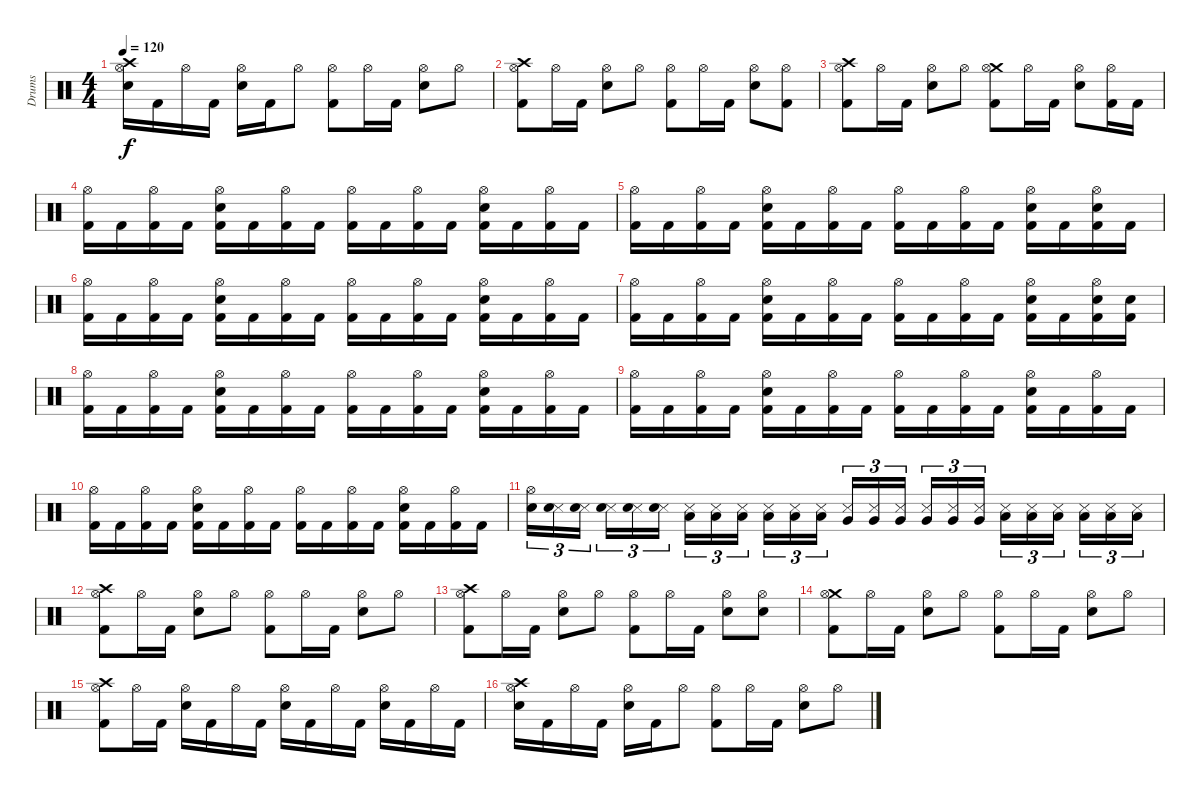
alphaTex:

\track ("Drums" "Drums") {instrument percussion}
\staff {score}
\articulation defaults
\ts (4 4)
\tempo 120
\clef neutral
\ks c
("Crash high (hit)" "Hi-Hat (open)" "Electric Snare (hit)").16{dy f} "Kick (hit) 2".16 "Hi-Hat (open)".16 "Kick (hit) 2".16 ("Hi-Hat (open)" "Electric Snare (hit)").16 "Kick (hit) 2".16 "Hi-Hat (open)".8 ("Hi-Hat (open)" "Kick (hit) 2").8 "Hi-Hat (open)".16 "Kick (hit) 2".16 ("Hi-Hat (open)" "Electric Snare (hit)").8 "Hi-Hat (open)".8 |
("Crash high (hit)" "Hi-Hat (open)" "Kick (hit) 2").8 "Hi-Hat (open)".16 "Kick (hit) 2".16 ("Hi-Hat (open)" "Electric Snare (hit)").8 "Hi-Hat (open)".8 ("Hi-Hat (open)" "Kick (hit) 2").8 "Hi-Hat (open)".16 "Kick (hit) 2".16 ("Hi-Hat (open)" "Electric Snare (hit)").8 ("Hi-Hat (open)" "Kick (hit) 2").8 |
("Crash high (hit)" "Hi-Hat (open)" "Kick (hit) 2").8 "Hi-Hat (open)".16 "Kick (hit) 2".16 ("Hi-Hat (open)" "Electric Snare (hit)").8 "Hi-Hat (open)".8 ("Crash medium (hit)" "Hi-Hat (open)" "Kick (hit) 2").8 "Hi-Hat (open)".16 "Kick (hit) 2".16 ("Hi-Hat (open)" "Electric Snare (hit)").8 ("Hi-Hat (open)" "Kick (hit) 2").16 "Kick (hit) 2".16 |
("Hi-Hat (open)" "Kick (hit) 2").16 "Kick (hit) 2".16 ("Hi-Hat (open)" "Kick (hit) 2").16 "Kick (hit) 2".16 ("Hi-Hat (open)" "Electric Snare (hit)" "Kick (hit) 2").16 "Kick (hit) 2".16 ("Hi-Hat (open)" "Kick (hit) 2").16 "Kick (hit) 2".16 ("Hi-Hat (open)" "Kick (hit) 2").16 "Kick (hit) 2".16 ("Hi-Hat (open)" "Kick (hit) 2").16 "Kick (hit) 2".16 ("Hi-Hat (open)" "Electric Snare (hit)" "Kick (hit) 2").16 "Kick (hit) 2".16 ("Hi-Hat (open)" "Kick (hit) 2").16 "Kick (hit) 2".16 |
("Hi-Hat (open)" "Kick (hit) 2").16 "Kick (hit) 2".16 ("Hi-Hat (open)" "Kick (hit) 2").16 "Kick (hit) 2".16 ("Hi-Hat (open)" "Electric Snare (hit)" "Kick (hit) 2").16 "Kick (hit) 2".16 ("Hi-Hat (open)" "Kick (hit) 2").16 "Kick (hit) 2".16 ("Hi-Hat (open)" "Kick (hit) 2").16 "Kick (hit) 2".16 ("Hi-Hat (open)" "Kick (hit) 2").16 "Kick (hit) 2".16 ("Hi-Hat (open)" "Electric Snare (hit)" "Kick (hit) 2").16 "Kick (hit) 2".16 ("Hi-Hat (open)" "Electric Snare (hit)" "Kick (hit) 2").16 "Kick (hit) 2".16 |
("Hi-Hat (open)" "Kick (hit) 2").16 "Kick (hit) 2".16 ("Hi-Hat (open)" "Kick (hit) 2").16 "Kick (hit) 2".16 ("Hi-Hat (open)" "Electric Snare (hit)" "Kick (hit) 2").16 "Kick (hit) 2".16 ("Hi-Hat (open)" "Kick (hit) 2").16 "Kick (hit) 2".16 ("Hi-Hat (open)" "Kick (hit) 2").16 "Kick (hit) 2".16 ("Hi-Hat (open)" "Kick (hit) 2").16 "Kick (hit) 2".16 ("Hi-Hat (open)" "Electric Snare (hit)" "Kick (hit) 2").16 "Kick (hit) 2".16 ("Hi-Hat (open)" "Kick (hit) 2").16 "Kick (hit) 2".16 |
("Hi-Hat (open)" "Kick (hit) 2").16 "Kick (hit) 2".16 ("Hi-Hat (open)" "Kick (hit) 2").16 "Kick (hit) 2".16 ("Hi-Hat (open)" "Electric Snare (hit)" "Kick (hit) 2").16 "Kick (hit) 2".16 ("Hi-Hat (open)" "Kick (hit) 2").16 "Kick (hit) 2".16 ("Hi-Hat (open)" "Kick (hit) 2").16 "Kick (hit) 2".16 ("Hi-Hat (open)" "Kick (hit) 2").16 "Kick (hit) 2".16 ("Hi-Hat (open)" "Electric Snare (hit)" "Kick (hit) 2").16 "Kick (hit) 2".16 ("Hi-Hat (open)" "Electric Snare (hit)" "Kick (hit) 2").16 ("Electric Snare (hit)" "Kick (hit) 2").16 |
("Hi-Hat (open)" "Kick (hit) 2").16 "Kick (hit) 2".16 ("Hi-Hat (open)" "Kick (hit) 2").16 "Kick (hit) 2".16 ("Hi-Hat (open)" "Electric Snare (hit)" "Kick (hit) 2").16 "Kick (hit) 2".16 ("Hi-Hat (open)" "Kick (hit) 2").16 "Kick (hit) 2".16 ("Hi-Hat (open)" "Kick (hit) 2").16 "Kick (hit) 2".16 ("Hi-Hat (open)" "Kick (hit) 2").16 "Kick (hit) 2".16 ("Hi-Hat (open)" "Electric Snare (hit)" "Kick (hit) 2").16 "Kick (hit) 2".16 ("Hi-Hat (open)" "Kick (hit) 2").16 "Kick (hit) 2".16 |
("Hi-Hat (open)" "Kick (hit) 2").16 "Kick (hit) 2".16 ("Hi-Hat (open)" "Kick (hit) 2").16 "Kick (hit) 2".16 ("Hi-Hat (open)" "Electric Snare (hit)" "Kick (hit) 2").16 "Kick (hit) 2".16 ("Hi-Hat (open)" "Kick (hit) 2").16 "Kick (hit) 2".16 ("Hi-Hat (open)" "Kick (hit) 2").16 "Kick (hit) 2".16 ("Hi-Hat (open)" "Kick (hit) 2").16 "Kick (hit) 2".16 ("Hi-Hat (open)" "Electric Snare (hit)" "Kick (hit) 2").16 "Kick (hit) 2".16 ("Hi-Hat (open)" "Kick (hit) 2").16 "Kick (hit) 2".16 |
("Hi-Hat (open)" "Kick (hit) 2").16 "Kick (hit) 2".16 ("Hi-Hat (open)" "Kick (hit) 2").16 "Kick (hit) 2".16 ("Hi-Hat (open)" "Electric Snare (hit)" "Kick (hit) 2").16 "Kick (hit) 2".16 ("Hi-Hat (open)" "Kick (hit) 2").16 "Kick (hit) 2".16 ("Hi-Hat (open)" "Kick (hit) 2").16 "Kick (hit) 2".16 ("Hi-Hat (open)" "Kick (hit) 2").16 "Kick (hit) 2".16 ("Hi-Hat (open)" "Electric Snare (hit)" "Kick (hit) 2").16 "Kick (hit) 2".16 ("Hi-Hat (open)" "Kick (hit) 2").16 "Kick (hit) 2".16 |
("Hi-Hat (open)" "Electric Snare (hit)").16{tu (3 2)} ("Snare (side stick) 3" "Electric Snare (hit)").16{tu (3 2)} ("Snare (side stick) 3" "Electric Snare (hit)").16{tu (3 2)} ("Snare (side stick) 3" "Electric Snare (hit)").16{tu (3 2)} ("Snare (side stick) 3" "Electric Snare (hit)").16{tu (3 2)} ("Snare (side stick) 3" "Electric Snare (hit)").16{tu (3 2)} ("Snare (side stick) 3" "Low Tom (hit)").16{tu (3 2)} ("Snare (side stick) 3" "Low Tom (hit)").16{tu (3 2)} ("Snare (side stick) 3" "Low Tom (hit)").16{tu (3 2)} ("Snare (side stick) 3" "Low Tom (hit)").16{tu (3 2)} ("Snare (side stick) 3" "Low Tom (hit)").16{tu (3 2)} ("Snare (side stick) 3" "Low Tom (hit)").16{tu (3 2)} ("Snare (side stick) 3" "Very Low Tom (hit)").16{tu (3 2)} ("Snare (side stick) 3" "Very Low Tom (hit)").16{tu (3 2)} ("Snare (side stick) 3" "Very Low Tom (hit)").16{tu (3 2)} ("Snare (side stick) 3" "Very Low Tom (hit)").16{tu (3 2)} ("Snare (side stick) 3" "Very Low Tom (hit)").16{tu (3 2)} ("Snare (side stick) 3" "Very Low Tom (hit)").16{tu (3 2)} ("Snare (side stick) 3" "Low Floor Tom (hit)").16{tu (3 2)} ("Snare (side stick) 3" "Low Floor Tom (hit)").16{tu (3 2)} ("Snare (side stick) 3" "Low Floor Tom (hit)").16{tu (3 2)} ("Snare (side stick) 3" "Low Floor Tom (hit)").16{tu (3 2)} ("Snare (side stick) 3" "Low Floor Tom (hit)").16{tu (3 2)} ("Snare (side stick) 3" "Low Floor Tom (hit)").16{tu (3 2)} |
("Crash high (hit)" "Hi-Hat (open)" "Kick (hit) 2").8 "Hi-Hat (open)".16 "Kick (hit) 2".16 ("Hi-Hat (open)" "Electric Snare (hit)").8 "Hi-Hat (open)".8 ("Hi-Hat (open)" "Kick (hit) 2").8 "Hi-Hat (open)".16 "Kick (hit) 2".16 ("Hi-Hat (open)" "Electric Snare (hit)").8 "Hi-Hat (open)".8 |
("Crash high (hit)" "Hi-Hat (open)" "Kick (hit) 2").8 "Hi-Hat (open)".16 "Kick (hit) 2".16 ("Hi-Hat (open)" "Electric Snare (hit)").8 "Hi-Hat (open)".8 ("Hi-Hat (open)" "Kick (hit) 2").8 "Hi-Hat (open)".16 "Kick (hit) 2".16 ("Hi-Hat (open)" "Electric Snare (hit)").8 ("Hi-Hat (open)" "Electric Snare (hit)").8 |
("Crash medium (hit)" "Hi-Hat (open)" "Kick (hit) 2").8 "Hi-Hat (open)".16 "Kick (hit) 2".16 ("Hi-Hat (open)" "Electric Snare (hit)").8 "Hi-Hat (open)".8 ("Hi-Hat (open)" "Kick (hit) 2").8 "Hi-Hat (open)".16 "Kick (hit) 2".16 ("Hi-Hat (open)" "Electric Snare (hit)").8 "Hi-Hat (open)".8 |
("Crash high (hit)" "Hi-Hat (open)" "Kick (hit) 2").8 "Hi-Hat (open)".16 "Kick (hit) 2".16 ("Hi-Hat (open)" "Electric Snare (hit)").16 "Kick (hit) 2".16 "Hi-Hat (open)".16 "Kick (hit) 2".16 ("Hi-Hat (open)" "Electric Snare (hit)").16 "Kick (hit) 2".16 "Hi-Hat (open)".16 "Kick (hit) 2".16 ("Hi-Hat (open)" "Electric Snare (hit)").16 "Kick (hit) 2".16 "Hi-Hat (open)".16 "Kick (hit) 2".16 |
("Crash high (hit)" "Hi-Hat (open)" "Electric Snare (hit)").16 "Kick (hit) 2".16 "Hi-Hat (open)".16 "Kick (hit) 2".16 ("Hi-Hat (open)" "Electric Snare (hit)").16 "Kick (hit) 2".16 "Hi-Hat (open)".8 ("Hi-Hat (open)" "Kick (hit) 2").8 "Hi-Hat (open)".16 "Kick (hit) 2".16 ("Hi-Hat (open)" "Electric Snare (hit)").8 "Hi-Hat (open)".8
